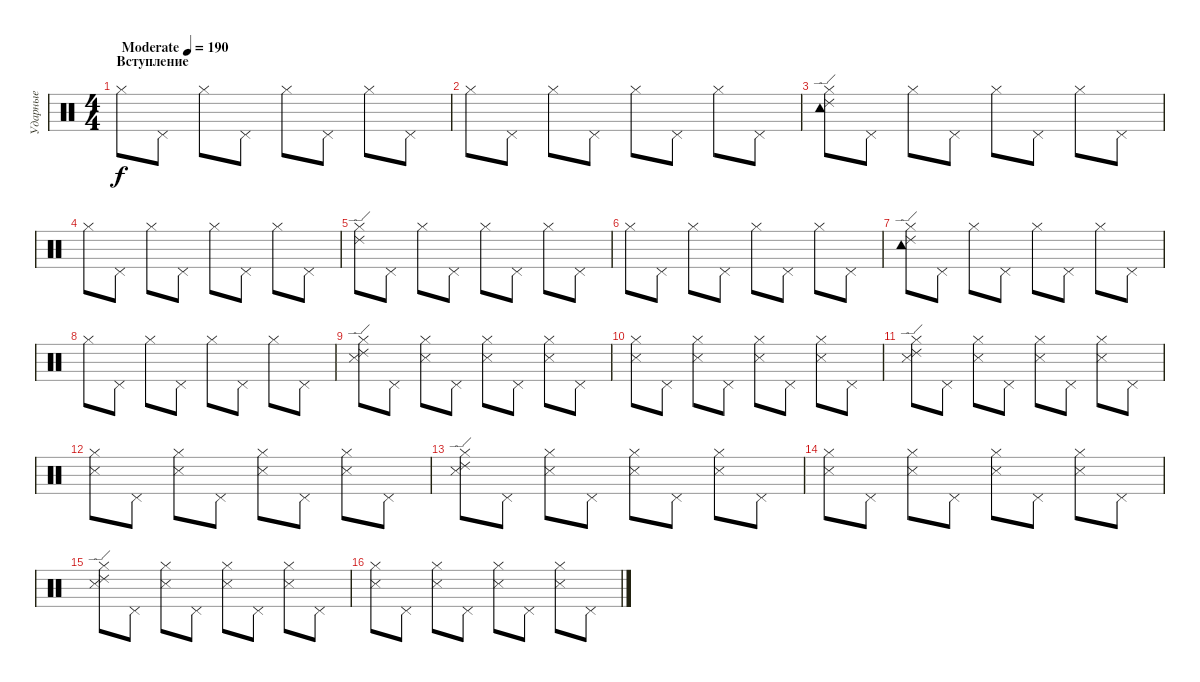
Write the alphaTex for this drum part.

\track ("Ударные" "Ударные") {instrument percussion}
\staff {score}
\articulation defaults
\ts (4 4)
\section ("" "Вступление")
\tempo (190 "Moderate")
\clef neutral
\ks c "Hi-Hat (closed)".8{dy f} "Pedal Hi-Hat (hit)".8 "Hi-Hat (closed)".8 "Pedal Hi-Hat (hit)".8 "Hi-Hat (closed)".8 "Pedal Hi-Hat (hit)".8 "Hi-Hat (closed)".8 "Pedal Hi-Hat (hit)".8
|
"Hi-Hat (closed)".8 "Pedal Hi-Hat (hit)".8 "Hi-Hat (closed)".8 "Pedal Hi-Hat (hit)".8 "Hi-Hat (closed)".8 "Pedal Hi-Hat (hit)".8 "Hi-Hat (closed)".8 "Pedal Hi-Hat (hit)".8 |
("Hi-Hat (closed)" "Tambourine (hit)" "Ride (edge) 2").8 "Pedal Hi-Hat (hit)".8 "Hi-Hat (closed)".8 "Pedal Hi-Hat (hit)".8 "Hi-Hat (closed)".8 "Pedal Hi-Hat (hit)".8 "Hi-Hat (closed)".8 "Pedal Hi-Hat (hit)".8 |
"Hi-Hat (closed)".8 "Pedal Hi-Hat (hit)".8 "Hi-Hat (closed)".8 "Pedal Hi-Hat (hit)".8 "Hi-Hat (closed)".8 "Pedal Hi-Hat (hit)".8 "Hi-Hat (closed)".8 "Pedal Hi-Hat (hit)".8 |
("Hi-Hat (closed)" "Ride (edge) 2").8 "Pedal Hi-Hat (hit)".8 "Hi-Hat (closed)".8 "Pedal Hi-Hat (hit)".8 "Hi-Hat (closed)".8 "Pedal Hi-Hat (hit)".8 "Hi-Hat (closed)".8 "Pedal Hi-Hat (hit)".8 |
"Hi-Hat (closed)".8 "Pedal Hi-Hat (hit)".8 "Hi-Hat (closed)".8 "Pedal Hi-Hat (hit)".8 "Hi-Hat (closed)".8 "Pedal Hi-Hat (hit)".8 "Hi-Hat (closed)".8 "Pedal Hi-Hat (hit)".8 |
("Hi-Hat (closed)" "Tambourine (hit)" "Ride (edge) 2").8 "Pedal Hi-Hat (hit)".8 "Hi-Hat (closed)".8 "Pedal Hi-Hat (hit)".8 "Hi-Hat (closed)".8 "Pedal Hi-Hat (hit)".8 "Hi-Hat (closed)".8 "Pedal Hi-Hat (hit)".8 |
"Hi-Hat (closed)".8 "Pedal Hi-Hat (hit)".8 "Hi-Hat (closed)".8 "Pedal Hi-Hat (hit)".8 "Hi-Hat (closed)".8 "Pedal Hi-Hat (hit)".8 "Hi-Hat (closed)".8 "Pedal Hi-Hat (hit)".8 |
("Hi-Hat (closed)" "Snare (side stick) 3" "Ride (edge) 2").8 "Pedal Hi-Hat (hit)".8 ("Hi-Hat (closed)" "Snare (side stick) 3").8 "Pedal Hi-Hat (hit)".8 ("Hi-Hat (closed)" "Snare (side stick) 3").8 "Pedal Hi-Hat (hit)".8 ("Hi-Hat (closed)" "Snare (side stick) 3").8 "Pedal Hi-Hat (hit)".8 |
("Hi-Hat (closed)" "Snare (side stick) 3").8 "Pedal Hi-Hat (hit)".8 ("Hi-Hat (closed)" "Snare (side stick) 3").8 "Pedal Hi-Hat (hit)".8 ("Hi-Hat (closed)" "Snare (side stick) 3").8 "Pedal Hi-Hat (hit)".8 ("Hi-Hat (closed)" "Snare (side stick) 3").8 "Pedal Hi-Hat (hit)".8 |
("Hi-Hat (closed)" "Snare (side stick) 3" "Ride (edge) 2").8 "Pedal Hi-Hat (hit)".8 ("Hi-Hat (closed)" "Snare (side stick) 3").8 "Pedal Hi-Hat (hit)".8 ("Hi-Hat (closed)" "Snare (side stick) 3").8 "Pedal Hi-Hat (hit)".8 ("Hi-Hat (closed)" "Snare (side stick) 3").8 "Pedal Hi-Hat (hit)".8 |
("Hi-Hat (closed)" "Snare (side stick) 3").8 "Pedal Hi-Hat (hit)".8 ("Hi-Hat (closed)" "Snare (side stick) 3").8 "Pedal Hi-Hat (hit)".8 ("Hi-Hat (closed)" "Snare (side stick) 3").8 "Pedal Hi-Hat (hit)".8 ("Hi-Hat (closed)" "Snare (side stick) 3").8 "Pedal Hi-Hat (hit)".8 |
("Hi-Hat (closed)" "Snare (side stick) 3" "Ride (edge) 2").8 "Pedal Hi-Hat (hit)".8 ("Hi-Hat (closed)" "Snare (side stick) 3").8 "Pedal Hi-Hat (hit)".8 ("Hi-Hat (closed)" "Snare (side stick) 3").8 "Pedal Hi-Hat (hit)".8 ("Hi-Hat (closed)" "Snare (side stick) 3").8 "Pedal Hi-Hat (hit)".8 |
("Hi-Hat (closed)" "Snare (side stick) 3").8 "Pedal Hi-Hat (hit)".8 ("Hi-Hat (closed)" "Snare (side stick) 3").8 "Pedal Hi-Hat (hit)".8 ("Hi-Hat (closed)" "Snare (side stick) 3").8 "Pedal Hi-Hat (hit)".8 ("Hi-Hat (closed)" "Snare (side stick) 3").8 "Pedal Hi-Hat (hit)".8 |
("Hi-Hat (closed)" "Snare (side stick) 3" "Ride (edge) 2").8 "Pedal Hi-Hat (hit)".8 ("Hi-Hat (closed)" "Snare (side stick) 3").8 "Pedal Hi-Hat (hit)".8 ("Hi-Hat (closed)" "Snare (side stick) 3").8 "Pedal Hi-Hat (hit)".8 ("Hi-Hat (closed)" "Snare (side stick) 3").8 "Pedal Hi-Hat (hit)".8 |
("Hi-Hat (closed)" "Snare (side stick) 3").8 "Pedal Hi-Hat (hit)".8 ("Hi-Hat (closed)" "Snare (side stick) 3").8 "Pedal Hi-Hat (hit)".8 ("Hi-Hat (closed)" "Snare (side stick) 3").8 "Pedal Hi-Hat (hit)".8 ("Hi-Hat (closed)" "Snare (side stick) 3").8 "Pedal Hi-Hat (hit)".8
